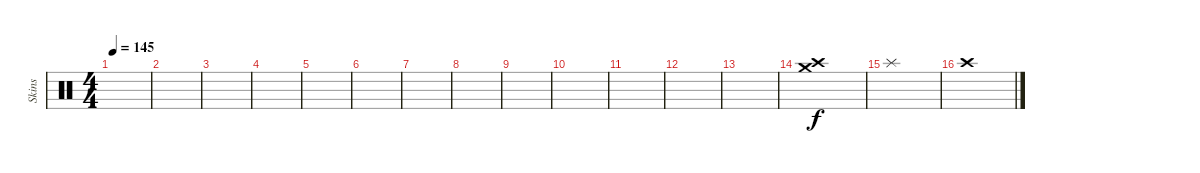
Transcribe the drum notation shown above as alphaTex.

\track ("Skins" "Skins") {instrument percussion}
\staff {score}
\articulation defaults
\ts (4 4)
\tempo 145
\clef neutral
\ks c
|
|
|
|
|
|
|
|
|
|
|
|
|
("Crash high (hit)" "Crash medium (hit)").1 |
"Splash (hit)".1 |
"Crash high (hit)".1
